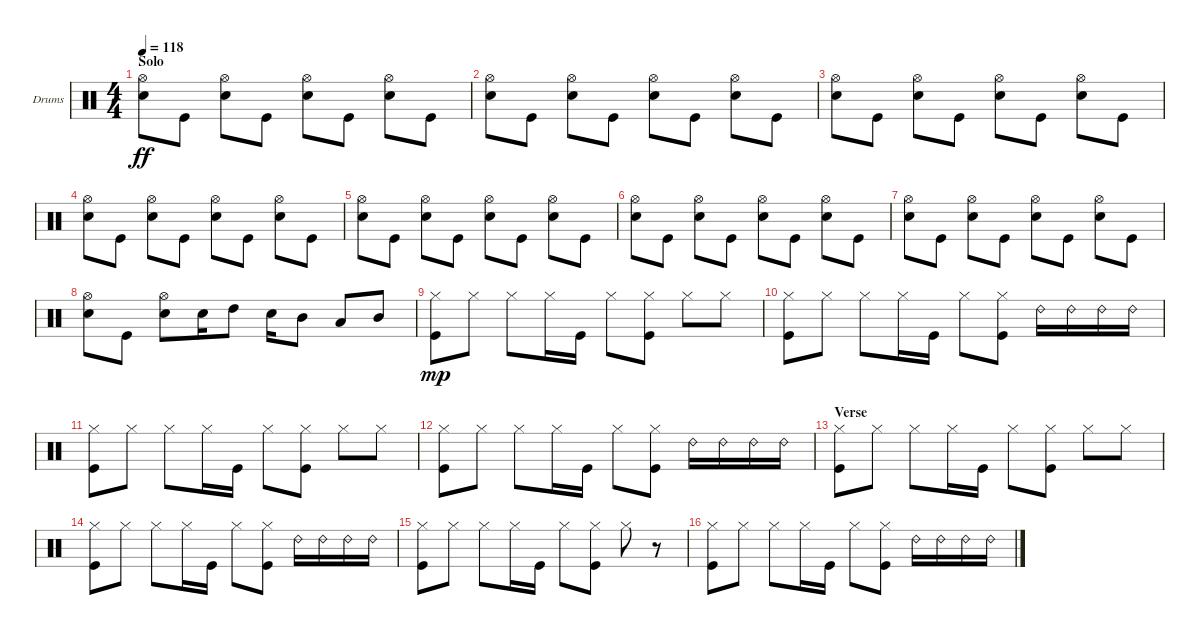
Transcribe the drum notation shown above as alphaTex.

\defaultSystemsLayout 4
\bracketExtendMode groupsimilarinstruments
\firstSystemTrackNameOrientation horizontal
\otherSystemsTrackNameOrientation horizontal
\track ("Drumkit" "Drums") {instrument percussion}
\staff {score}
\articulation defaults
\ts (4 4)
\section ("" "Solo")
\tempo 118
\clef neutral
\ks c
("Snare (hit) 2" "Hi-Hat (open)").8{dy ff} "Kick (hit)".8 ("Snare (hit) 2" "Hi-Hat (open)").8 "Kick (hit)".8 ("Hi-Hat (open)" "Snare (hit) 2").8 "Kick (hit)".8 ("Hi-Hat (open)" "Snare (hit) 2").8 "Kick (hit)".8 |
("Snare (hit) 2" "Hi-Hat (open)").8 "Kick (hit)".8 ("Snare (hit) 2" "Hi-Hat (open)").8 "Kick (hit)".8 ("Hi-Hat (open)" "Snare (hit) 2").8 "Kick (hit)".8 ("Hi-Hat (open)" "Snare (hit) 2").8 "Kick (hit)".8 |
("Snare (hit) 2" "Hi-Hat (open)").8 "Kick (hit)".8 ("Snare (hit) 2" "Hi-Hat (open)").8 "Kick (hit)".8 ("Hi-Hat (open)" "Snare (hit) 2").8 "Kick (hit)".8 ("Hi-Hat (open)" "Snare (hit) 2").8 "Kick (hit)".8 |
("Snare (hit) 2" "Hi-Hat (open)").8 "Kick (hit)".8 ("Snare (hit) 2" "Hi-Hat (open)").8 "Kick (hit)".8 ("Hi-Hat (open)" "Snare (hit) 2").8 "Kick (hit)".8 ("Hi-Hat (open)" "Snare (hit) 2").8 "Kick (hit)".8 |
("Snare (hit) 2" "Hi-Hat (open)").8 "Kick (hit)".8 ("Snare (hit) 2" "Hi-Hat (open)").8 "Kick (hit)".8 ("Hi-Hat (open)" "Snare (hit) 2").8 "Kick (hit)".8 ("Hi-Hat (open)" "Snare (hit) 2").8 "Kick (hit)".8 |
("Snare (hit) 2" "Hi-Hat (open)").8 "Kick (hit)".8 ("Snare (hit) 2" "Hi-Hat (open)").8 "Kick (hit)".8 ("Hi-Hat (open)" "Snare (hit) 2").8 "Kick (hit)".8 ("Hi-Hat (open)" "Snare (hit) 2").8 "Kick (hit)".8 |
("Snare (hit) 2" "Hi-Hat (open)").8 "Kick (hit)".8 ("Snare (hit) 2" "Hi-Hat (open)").8 "Kick (hit)".8 ("Hi-Hat (open)" "Snare (hit) 2").8 "Kick (hit)".8 ("Hi-Hat (open)" "Snare (hit) 2").8 "Kick (hit)".8 |
("Snare (hit) 2" "Hi-Hat (open)").8 "Kick (hit)".8 ("Snare (hit) 2" "Hi-Hat (open)").8 "Snare (hit) 2".16 "High Tom (hit)".8 "Snare (hit) 2".16 "Mid Tom (hit)".8 "Low Tom (hit)".8 "Mid Tom (hit)".8 |
("Hi-Hat (closed)" "Kick (hit)").8{dy mp} "Hi-Hat (closed)".8 "Hi-Hat (closed)".8 "Hi-Hat (closed)".16 "Kick (hit)".16 "Hi-Hat (closed)".8 ("Kick (hit)" "Hi-Hat (closed)").8 "Hi-Hat (closed)".8 "Hi-Hat (closed)".8 |
("Hi-Hat (closed)" "Kick (hit)").8 "Hi-Hat (closed)".8 "Hi-Hat (closed)".8 "Hi-Hat (closed)".16 "Kick (hit)".16 "Hi-Hat (closed)".8 ("Kick (hit)" "Hi-Hat (closed)").8 "Ride (bell) 2".16 "Ride (bell) 2".16 "Ride (bell) 2".16 "Ride (bell) 2".16 |
("Hi-Hat (closed)" "Kick (hit)").8 "Hi-Hat (closed)".8 "Hi-Hat (closed)".8 "Hi-Hat (closed)".16 "Kick (hit)".16 "Hi-Hat (closed)".8 ("Kick (hit)" "Hi-Hat (closed)").8 "Hi-Hat (closed)".8 "Hi-Hat (closed)".8 |
("Hi-Hat (closed)" "Kick (hit)").8 "Hi-Hat (closed)".8 "Hi-Hat (closed)".8 "Hi-Hat (closed)".16 "Kick (hit)".16 "Hi-Hat (closed)".8 ("Kick (hit)" "Hi-Hat (closed)").8 "Ride (bell) 2".16 "Ride (bell) 2".16 "Ride (bell) 2".16 "Ride (bell) 2".16 |
\section ("" "Verse")
("Hi-Hat (closed)" "Kick (hit)").8 "Hi-Hat (closed)".8 "Hi-Hat (closed)".8 "Hi-Hat (closed)".16 "Kick (hit)".16 "Hi-Hat (closed)".8 ("Kick (hit)" "Hi-Hat (closed)").8 "Hi-Hat (closed)".8 "Hi-Hat (closed)".8 |
("Hi-Hat (closed)" "Kick (hit)").8 "Hi-Hat (closed)".8 "Hi-Hat (closed)".8 "Hi-Hat (closed)".16 "Kick (hit)".16 "Hi-Hat (closed)".8 ("Kick (hit)" "Hi-Hat (closed)").8 "Ride (bell) 2".16 "Ride (bell) 2".16 "Ride (bell) 2".16 "Ride (bell) 2".16 |
("Hi-Hat (closed)" "Kick (hit)").8 "Hi-Hat (closed)".8 "Hi-Hat (closed)".8 "Hi-Hat (closed)".16 "Kick (hit)".16 "Hi-Hat (closed)".8 ("Kick (hit)" "Hi-Hat (closed)").8 "Hi-Hat (closed)".8 r.8 |
("Hi-Hat (closed)" "Kick (hit)").8 "Hi-Hat (closed)".8 "Hi-Hat (closed)".8 "Hi-Hat (closed)".16 "Kick (hit)".16 "Hi-Hat (closed)".8 ("Kick (hit)" "Hi-Hat (closed)").8 "Ride (bell) 2".16 "Ride (bell) 2".16 "Ride (bell) 2".16 "Ride (bell) 2".16
